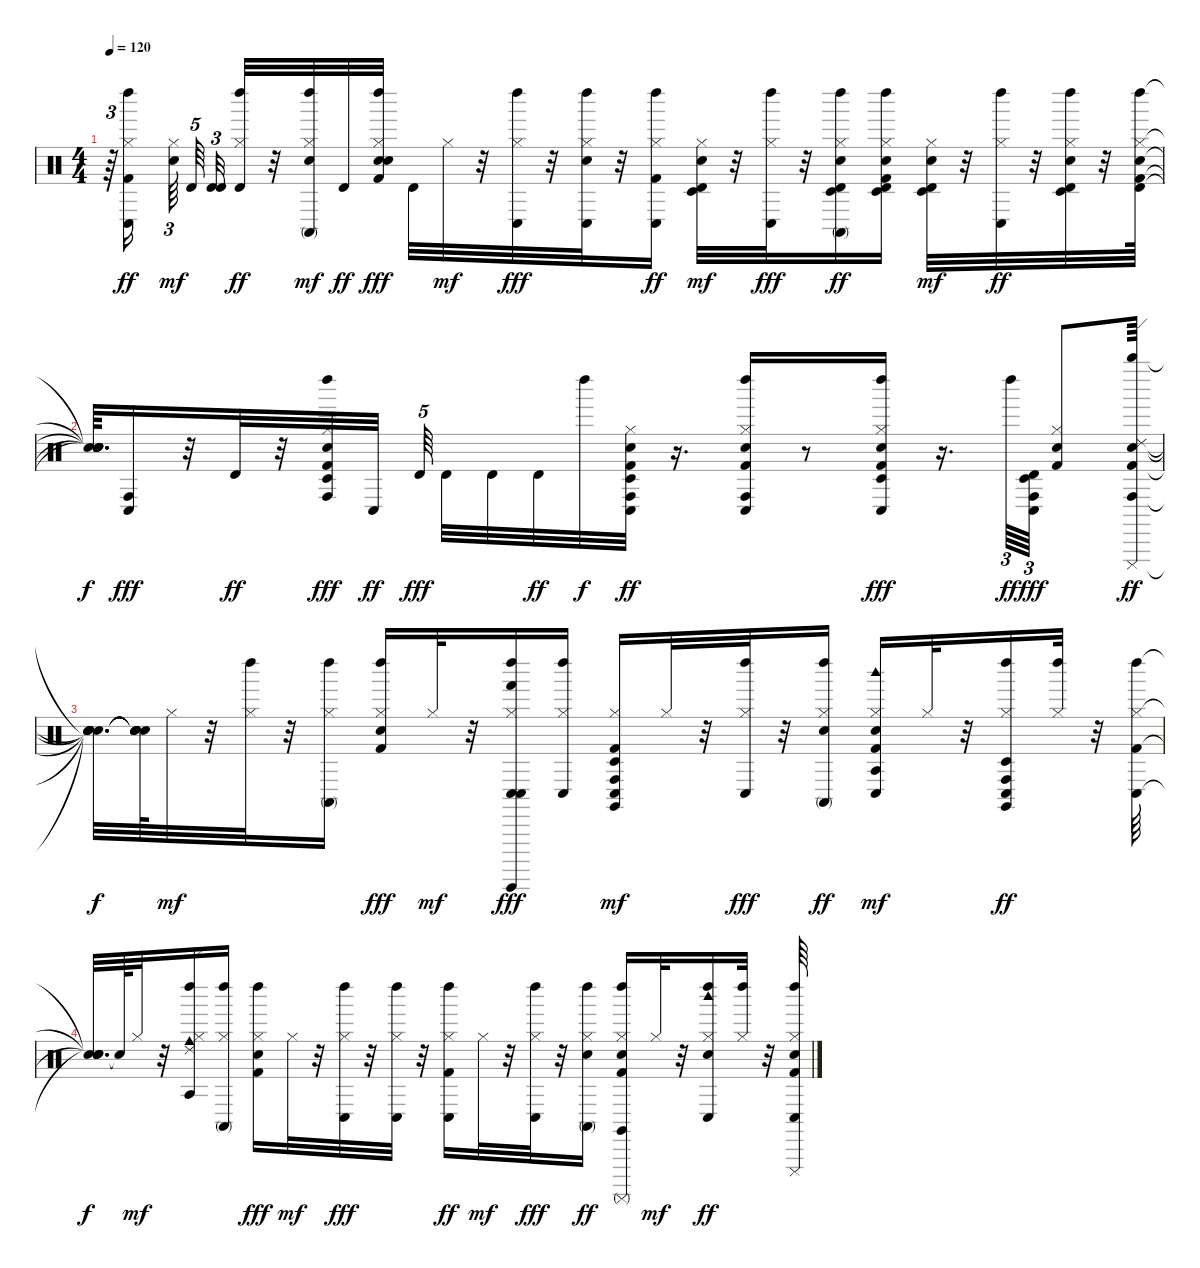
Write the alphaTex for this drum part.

\track "" {instrument percussion}
\staff {score}
\articulation defaults
\ts (4 4)
\tempo 120
\clef neutral
\ks c
r.64{tu (3 2) dy ff} ("Kick (hit) 2" "Conga low (hit)" "Hi-Hat (closed)" "Left Maraca (hit)").16{beam splitsecondary} ("Electric Snare (hit)" "Hi-Hat (closed)").64{tu (3 2) dy mf} "Timbale high (hit)".64{tu (5 4)} ("Timbale high (hit)" "Timbale high (hit)").32{tu (3 2) beam splitsecondary} ("Hi-Hat (closed)" "Left Maraca (hit)" "Timbale high (hit)").32{dy ff} r.32 ("Electric Snare (hit)" "Conga high (mute)" "Hi-Hat (closed)" "Left Maraca (hit)").32{dy mf} "Timbale high (hit)".32{dy ff} ("Kick (hit) 2" "Electric Snare (hit)" "Hi-Hat (closed)" "Left Maraca (hit)" "Hand Clap (hit)").32{dy fff} "Timbale high (hit)".32 "Hi-Hat (closed)".32{dy mf} r.32 ("Conga low (hit)" "Hi-Hat (closed)" "Left Maraca (hit)").32{dy fff} r.32 ("Electric Snare (hit)" "Conga low (hit)" "Hi-Hat (closed)" "Left Maraca (hit)").32 r.32 ("Kick (hit) 2" "Conga low (hit)" "Hi-Hat (closed)" "Left Maraca (hit)").16{dy ff} ("Electric Snare (hit)" "Timbale high (hit)" "Timbale low (hit)" "Hi-Hat (closed)").32{dy mf} r.32 ("Conga low (hit)" "Hi-Hat (closed)" "Left Maraca (hit)").32{dy fff} r.32 ("Electric Snare (hit)" "Timbale high (hit)" "Timbale low (hit)" "Conga high (mute)" "Hi-Hat (closed)" "Left Maraca (hit)").16{dy ff} ("Kick (hit) 2" "Electric Snare (hit)" "Timbale high (hit)" "Timbale low (hit)" "Hi-Hat (closed)" "Left Maraca (hit)").16 ("Electric Snare (hit)" "Timbale high (hit)" "Timbale low (hit)" "Hi-Hat (closed)").32{dy mf} r.32 ("Conga low (hit)" "Hi-Hat (closed)" "Left Maraca (hit)").32{dy ff} r.32 ("Electric Snare (hit)" "Timbale high (hit)" "Timbale low (hit)" "Hi-Hat (closed)" "Left Maraca (hit)").32 r.32 ("Kick (hit) 2" "Electric Snare (hit)" "Hi-Hat (closed)" "Timbale high (hit)" "Left Maraca (hit)").64 |
("Snare (hit)"{t} "Snare (hit)"{t} "Snare (hit)"{t} "Snare (hit)"{t} "Snare (hit)"{t}).64{d dy f} ("Conga low (hit)" "Conga high (hit)").16{dy fff} r.32 "Timbale high (hit)".32{dy ff} r.32 ("Kick (hit) 2" "Electric Snare (hit)" "Hi-Hat (closed)" "Timbale low (hit)" "Left Maraca (hit)" "Conga high (hit)").32{dy fff} "Conga low (hit)".32{dy ff beam splitsecondary} "Timbale high (hit)".64{tu (5 4) dy fff} "Timbale high (hit)".32 "Timbale high (hit)".32 "Timbale high (hit)".32{dy ff} "Left Maraca (hit)".32{dy f} ("Kick (hit) 2" "Electric Snare (hit)" "Hi-Hat (closed)" "Timbale low (hit)" "Conga high (hit)" "Conga low (hit)").32{dy ff} r.16{d} ("Kick (hit) 2" "Electric Snare (hit)" "Hi-Hat (closed)" "Conga high (hit)" "Conga low (hit)" "Left Maraca (hit)").16 r.8 ("Left Maraca (hit)" "Conga low (hit)" "Kick (hit) 2" "Electric Snare (hit)" "Hi-Hat (closed)" "Timbale low (hit)").16{dy fff} r.16{d} "Left Maraca (hit)".64{tu (3 2) dy ff} ("Conga low (hit)" "Timbale low (hit)" "Conga high (hit)" "Timbale high (hit)").64{tu (3 2) dy fff} ("Kick (hit) 2" "Electric Snare (hit)" "Hi-Hat (closed)").8 ("Ride (edge) 2" "Conga high (hit)" "Whistle high (hit)" "Cuica (mute)" "Snare (hit)" "Kick (hit) 2").64{dy ff} |
("Snare (hit)"{t} "Snare (hit)"{t} "Snare (hit)"{t} "Snare (hit)"{t} "Snare (hit)"{t} "Snare (hit)"{t}).32{d dy f} ("Snare (hit)"{t} "Snare (hit)"{t} "Snare (hit)"{t} "Snare (hit)"{t} "Snare (hit)"{t}).64 "Hi-Hat (closed)".32{dy mf} r.32 ("Hi-Hat (closed)" "Left Maraca (hit)").32 r.32 ("Conga high (mute)" "Hi-Hat (closed)" "Left Maraca (hit)").16 ("Kick (hit) 2" "Electric Snare (hit)" "Hi-Hat (closed)" "Left Maraca (hit)").16{dy fff} "Hi-Hat (closed)".32{dy mf} r.32 ("Hand (hit)" "Conga low (hit)" "Guiro (hit)" "Conga low (hit)" "Hi-Hat (closed)" "Left Maraca (hit)").16{dy fff} ("Conga low (hit)" "Hi-Hat (closed)" "Left Maraca (hit)").16 ("Conga high (hit)" "Timbale low (hit)" "Claves (hit)" "Kick (hit) 2" "Conga low (hit)" "Hi-Hat (closed)").16{dy mf} "Hi-Hat (closed)".32 r.32 ("Conga low (hit)" "Hi-Hat (closed)" "Left Maraca (hit)").32{dy fff} r.32 ("Electric Snare (hit)" "Conga high (mute)" "Hi-Hat (closed)" "Left Maraca (hit)").16{dy ff} ("Conga low (hit)" "Agogo tow (hit)" "Woodblock high (hit)" "Kick (hit) 2" "Electric Snare (hit)" "Hi-Hat (closed)").16{dy mf} "Hi-Hat (closed)".32 r.32 ("Conga high (hit)" "Timbale low (hit)" "Claves (hit)" "Conga low (hit)" "Hi-Hat (closed)" "Left Maraca (hit)").16{dy ff} ("Hi-Hat (closed)" "Left Maraca (hit)").32 r.32 ("Kick (hit) 2" "Conga low (hit)" "Hi-Hat (closed)" "Left Maraca (hit)").64 |
("Snare (hit)"{t} "Snare (hit)"{t} "Snare (hit)"{t} "Snare (hit)"{t}).32{d dy f} "Snare (hit)"{t}.64 "Hi-Hat (closed)".32{dy mf} r.32 ("Cowbell medium (hit)" "Ride (edge) 2" "Agogo tow (hit)" "Hi-Hat (closed)" "Left Maraca (hit)").16 ("Conga high (mute)" "Hi-Hat (closed)" "Left Maraca (hit)").16 ("Kick (hit) 2" "Electric Snare (hit)" "Hi-Hat (closed)" "Left Maraca (hit)").16{dy fff} "Hi-Hat (closed)".32{dy mf} r.32 ("Conga low (hit)" "Hi-Hat (closed)" "Left Maraca (hit)").32{dy fff} r.32 ("Conga low (hit)" "Hi-Hat (closed)" "Left Maraca (hit)").32 r.32 ("Kick (hit) 2" "Conga low (hit)" "Hi-Hat (closed)" "Left Maraca (hit)").16{dy ff} "Hi-Hat (closed)".32{dy mf} r.32 ("Conga low (hit)" "Hi-Hat (closed)" "Left Maraca (hit)").32{dy fff} r.32 ("Electric Snare (hit)" "Conga high (mute)" "Hi-Hat (closed)" "Left Maraca (hit)").16{dy ff} ("Claves (hit)" "Surdo (mute)" "Kick (hit) 2" "Electric Snare (hit)" "Hi-Hat (closed)" "Left Maraca (hit)").16 "Hi-Hat (closed)".32{dy mf} r.32 ("Woodblock high (hit)" "Snare (hit)" "Conga low (hit)" "Hi-Hat (closed)" "Left Maraca (hit)").16{dy ff} ("Hi-Hat (closed)" "Left Maraca (hit)").32 r.32 ("Cuica (mute)" "Snare (hit)" "Kick (hit) 2" "Conga low (hit)" "Hi-Hat (closed)" "Left Maraca (hit)").64
